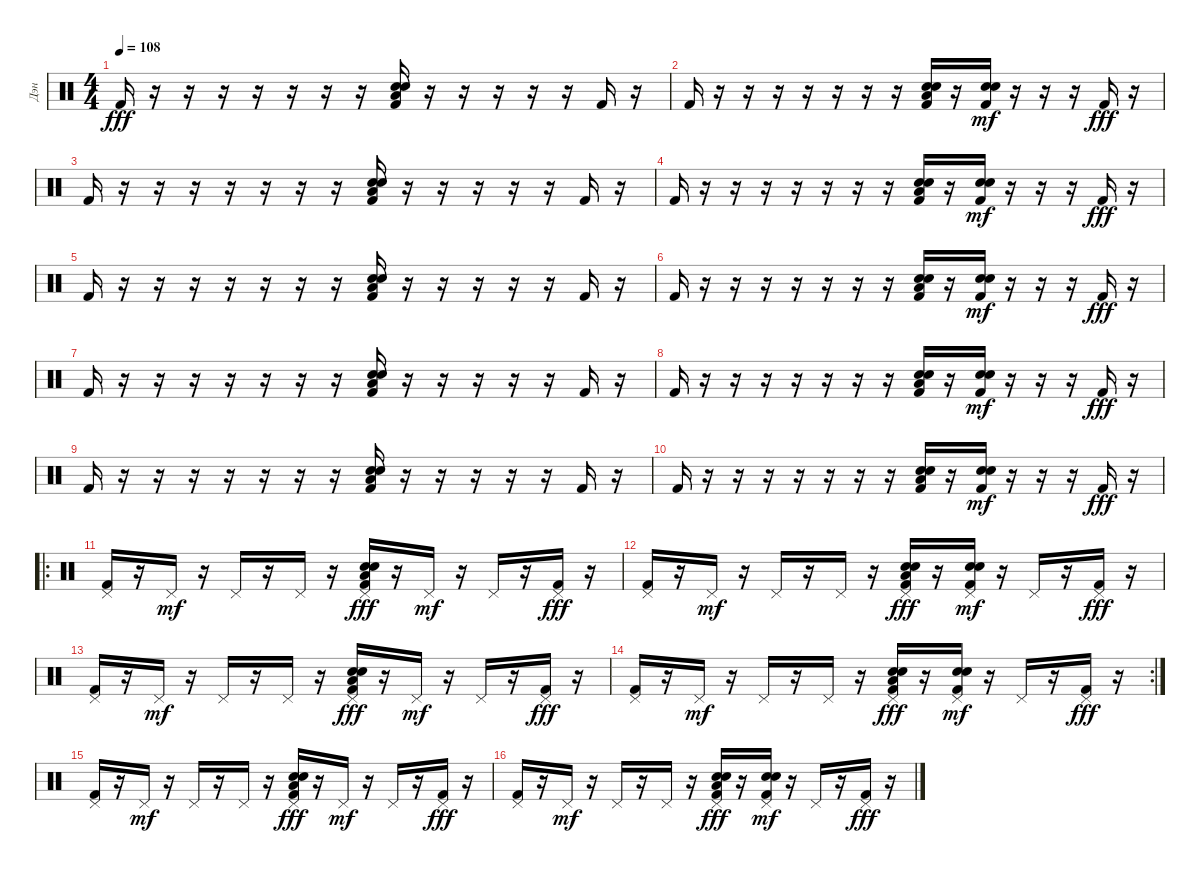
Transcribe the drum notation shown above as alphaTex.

\track ("Дэн" "Дэн") {instrument percussion}
\staff {score}
\articulation defaults
\ts (4 4)
\tempo 108
\clef neutral
\ks c "Kick (hit) 2".16{dy fff}
r.16 r.16 r.16 r.16 r.16 r.16 r.16 ("Snare (hit) 2" "Low Floor Tom (hit)" "Electric Snare (hit)" "Kick (hit) 2").16 r.16 r.16 r.16 r.16 r.16 "Kick (hit) 2".16 r.16 |
"Kick (hit) 2".16 r.16 r.16 r.16 r.16 r.16 r.16 r.16 ("Snare (hit) 2" "Low Floor Tom (hit)" "Electric Snare (hit)" "Kick (hit) 2").16 r.16 ("Snare (hit) 2" "Electric Snare (hit)" "Kick (hit) 2").16{dy mf} r.16 r.16 r.16 "Kick (hit) 2".16{dy fff} r.16 |
"Kick (hit) 2".16 r.16 r.16 r.16 r.16 r.16 r.16 r.16 ("Snare (hit) 2" "Low Floor Tom (hit)" "Electric Snare (hit)" "Kick (hit) 2").16 r.16 r.16 r.16 r.16 r.16 "Kick (hit) 2".16 r.16 |
"Kick (hit) 2".16 r.16 r.16 r.16 r.16 r.16 r.16 r.16 ("Snare (hit) 2" "Low Floor Tom (hit)" "Electric Snare (hit)" "Kick (hit) 2").16 r.16 ("Snare (hit) 2" "Electric Snare (hit)" "Kick (hit) 2").16{dy mf} r.16 r.16 r.16 "Kick (hit) 2".16{dy fff} r.16 |
"Kick (hit) 2".16 r.16 r.16 r.16 r.16 r.16 r.16 r.16 ("Snare (hit) 2" "Low Floor Tom (hit)" "Electric Snare (hit)" "Kick (hit) 2").16 r.16 r.16 r.16 r.16 r.16 "Kick (hit) 2".16 r.16 |
"Kick (hit) 2".16 r.16 r.16 r.16 r.16 r.16 r.16 r.16 ("Snare (hit) 2" "Low Floor Tom (hit)" "Electric Snare (hit)" "Kick (hit) 2").16 r.16 ("Snare (hit) 2" "Electric Snare (hit)" "Kick (hit) 2").16{dy mf} r.16 r.16 r.16 "Kick (hit) 2".16{dy fff} r.16 |
"Kick (hit) 2".16 r.16 r.16 r.16 r.16 r.16 r.16 r.16 ("Snare (hit) 2" "Low Floor Tom (hit)" "Electric Snare (hit)" "Kick (hit) 2").16 r.16 r.16 r.16 r.16 r.16 "Kick (hit) 2".16 r.16 |
"Kick (hit) 2".16 r.16 r.16 r.16 r.16 r.16 r.16 r.16 ("Snare (hit) 2" "Low Floor Tom (hit)" "Electric Snare (hit)" "Kick (hit) 2").16 r.16 ("Snare (hit) 2" "Electric Snare (hit)" "Kick (hit) 2").16{dy mf} r.16 r.16 r.16 "Kick (hit) 2".16{dy fff} r.16 |
"Kick (hit) 2".16 r.16 r.16 r.16 r.16 r.16 r.16 r.16 ("Snare (hit) 2" "Low Floor Tom (hit)" "Electric Snare (hit)" "Kick (hit) 2").16 r.16 r.16 r.16 r.16 r.16 "Kick (hit) 2".16 r.16 |
"Kick (hit) 2".16 r.16 r.16 r.16 r.16 r.16 r.16 r.16 ("Snare (hit) 2" "Low Floor Tom (hit)" "Electric Snare (hit)" "Kick (hit) 2").16 r.16 ("Snare (hit) 2" "Electric Snare (hit)" "Kick (hit) 2").16{dy mf} r.16 r.16 r.16 "Kick (hit) 2".16{dy fff} r.16 |
\ro
("Pedal Hi-Hat (hit)" "Kick (hit) 2").16 r.16 "Pedal Hi-Hat (hit)".16{dy mf} r.16 "Pedal Hi-Hat (hit)".16 r.16 "Pedal Hi-Hat (hit)".16 r.16 ("Pedal Hi-Hat (hit)" "Snare (hit) 2" "Low Floor Tom (hit)" "Electric Snare (hit)" "Kick (hit) 2").16{dy fff} r.16 "Pedal Hi-Hat (hit)".16{dy mf} r.16 "Pedal Hi-Hat (hit)".16 r.16 ("Pedal Hi-Hat (hit)" "Kick (hit) 2").16{dy fff} r.16 |
("Pedal Hi-Hat (hit)" "Kick (hit) 2").16 r.16 "Pedal Hi-Hat (hit)".16{dy mf} r.16 "Pedal Hi-Hat (hit)".16 r.16 "Pedal Hi-Hat (hit)".16 r.16 ("Pedal Hi-Hat (hit)" "Snare (hit) 2" "Low Floor Tom (hit)" "Electric Snare (hit)" "Kick (hit) 2").16{dy fff} r.16 ("Pedal Hi-Hat (hit)" "Snare (hit) 2" "Electric Snare (hit)" "Kick (hit) 2").16{dy mf} r.16 "Pedal Hi-Hat (hit)".16 r.16 ("Pedal Hi-Hat (hit)" "Kick (hit) 2").16{dy fff} r.16 |
("Pedal Hi-Hat (hit)" "Kick (hit) 2").16 r.16 "Pedal Hi-Hat (hit)".16{dy mf} r.16 "Pedal Hi-Hat (hit)".16 r.16 "Pedal Hi-Hat (hit)".16 r.16 ("Pedal Hi-Hat (hit)" "Snare (hit) 2" "Low Floor Tom (hit)" "Electric Snare (hit)" "Kick (hit) 2").16{dy fff} r.16 "Pedal Hi-Hat (hit)".16{dy mf} r.16 "Pedal Hi-Hat (hit)".16 r.16 ("Pedal Hi-Hat (hit)" "Kick (hit) 2").16{dy fff} r.16 |
\rc 2
("Pedal Hi-Hat (hit)" "Kick (hit) 2").16 r.16 "Pedal Hi-Hat (hit)".16{dy mf} r.16 "Pedal Hi-Hat (hit)".16 r.16 "Pedal Hi-Hat (hit)".16 r.16 ("Pedal Hi-Hat (hit)" "Snare (hit) 2" "Low Floor Tom (hit)" "Electric Snare (hit)" "Kick (hit) 2").16{dy fff} r.16 ("Pedal Hi-Hat (hit)" "Snare (hit) 2" "Electric Snare (hit)" "Kick (hit) 2").16{dy mf} r.16 "Pedal Hi-Hat (hit)".16 r.16 ("Pedal Hi-Hat (hit)" "Kick (hit) 2").16{dy fff} r.16 |
("Pedal Hi-Hat (hit)" "Kick (hit) 2").16 r.16 "Pedal Hi-Hat (hit)".16{dy mf} r.16 "Pedal Hi-Hat (hit)".16 r.16 "Pedal Hi-Hat (hit)".16 r.16 ("Pedal Hi-Hat (hit)" "Snare (hit) 2" "Low Floor Tom (hit)" "Electric Snare (hit)" "Kick (hit) 2").16{dy fff} r.16 "Pedal Hi-Hat (hit)".16{dy mf} r.16 "Pedal Hi-Hat (hit)".16 r.16 ("Pedal Hi-Hat (hit)" "Kick (hit) 2").16{dy fff} r.16 |
("Pedal Hi-Hat (hit)" "Kick (hit) 2").16 r.16 "Pedal Hi-Hat (hit)".16{dy mf} r.16 "Pedal Hi-Hat (hit)".16 r.16 "Pedal Hi-Hat (hit)".16 r.16 ("Pedal Hi-Hat (hit)" "Snare (hit) 2" "Low Floor Tom (hit)" "Electric Snare (hit)" "Kick (hit) 2").16{dy fff} r.16 ("Pedal Hi-Hat (hit)" "Snare (hit) 2" "Electric Snare (hit)" "Kick (hit) 2").16{dy mf} r.16 "Pedal Hi-Hat (hit)".16 r.16 ("Pedal Hi-Hat (hit)" "Kick (hit) 2").16{dy fff} r.16
